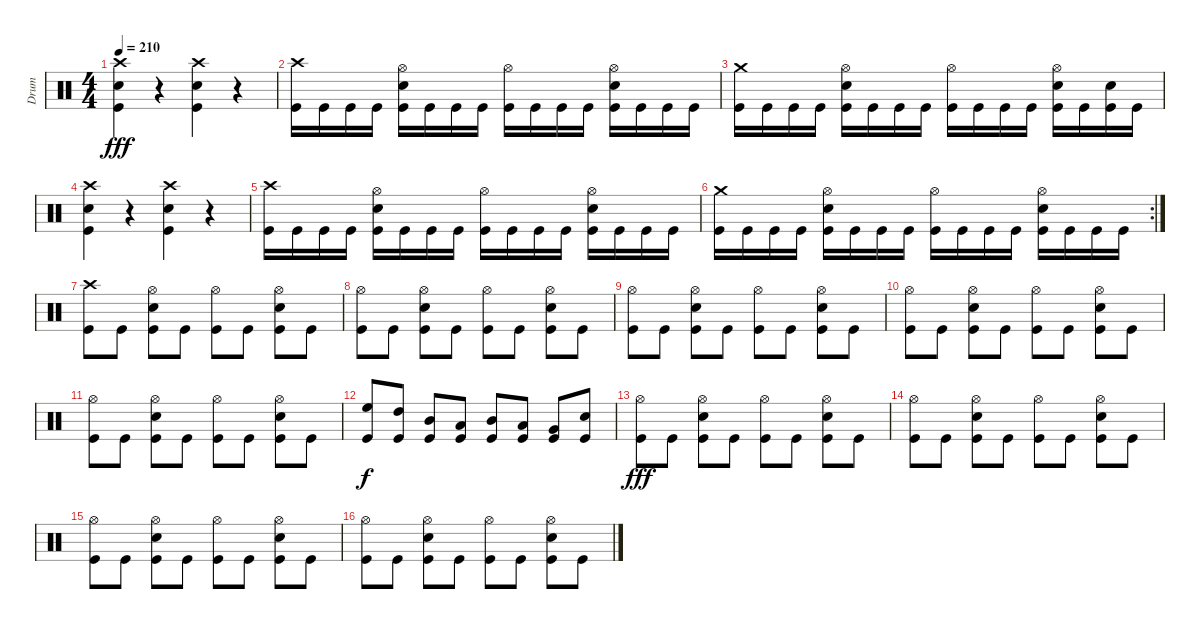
\track ("Drum" "Drum") {instrument percussion}
\staff {score}
\articulation defaults
\ts (4 4)
\tempo 210
\clef neutral
\ks c
("Crash high (hit)" "Snare (hit) 2" "Kick (hit)").4{dy fff} r.4 ("Crash high (hit)" "Snare (hit) 2" "Kick (hit)").4 r.4 |
("Crash high (hit)" "Kick (hit)").16 "Kick (hit)".16 "Kick (hit)".16 "Kick (hit)".16 ("Hi-Hat (open)" "Snare (hit) 2" "Kick (hit)").16 "Kick (hit)".16 "Kick (hit)".16 "Kick (hit)".16 ("Hi-Hat (open)" "Kick (hit)").16 "Kick (hit)".16 "Kick (hit)".16 "Kick (hit)".16 ("Hi-Hat (open)" "Snare (hit) 2" "Kick (hit)").16 "Kick (hit)".16 "Kick (hit)".16 "Kick (hit)".16 |
("Crash medium (hit)" "Kick (hit)").16 "Kick (hit)".16 "Kick (hit)".16 "Kick (hit)".16 ("Hi-Hat (open)" "Snare (hit) 2" "Kick (hit)").16 "Kick (hit)".16 "Kick (hit)".16 "Kick (hit)".16 ("Hi-Hat (open)" "Kick (hit)").16 "Kick (hit)".16 "Kick (hit)".16 "Kick (hit)".16 ("Hi-Hat (open)" "Snare (hit) 2" "Kick (hit)").16 "Kick (hit)".16 ("Snare (hit) 2" "Kick (hit)").16 "Kick (hit)".16 |
("Crash high (hit)" "Snare (hit) 2" "Kick (hit)").4 r.4 ("Crash high (hit)" "Snare (hit) 2" "Kick (hit)").4 r.4 |
("Crash high (hit)" "Kick (hit)").16 "Kick (hit)".16 "Kick (hit)".16 "Kick (hit)".16 ("Hi-Hat (open)" "Snare (hit) 2" "Kick (hit)").16 "Kick (hit)".16 "Kick (hit)".16 "Kick (hit)".16 ("Hi-Hat (open)" "Kick (hit)").16 "Kick (hit)".16 "Kick (hit)".16 "Kick (hit)".16 ("Hi-Hat (open)" "Snare (hit) 2" "Kick (hit)").16 "Kick (hit)".16 "Kick (hit)".16 "Kick (hit)".16 |
\rc 2
("Crash medium (hit)" "Kick (hit)").16 "Kick (hit)".16 "Kick (hit)".16 "Kick (hit)".16 ("Hi-Hat (open)" "Snare (hit) 2" "Kick (hit)").16 "Kick (hit)".16 "Kick (hit)".16 "Kick (hit)".16 ("Hi-Hat (open)" "Kick (hit)").16 "Kick (hit)".16 "Kick (hit)".16 "Kick (hit)".16 ("Hi-Hat (open)" "Snare (hit) 2" "Kick (hit)").16 "Kick (hit)".16 "Kick (hit)".16 "Kick (hit)".16 |
("Crash high (hit)" "Kick (hit)").8 "Kick (hit)".8 ("Hi-Hat (open)" "Snare (hit) 2" "Kick (hit)").8 "Kick (hit)".8 ("Hi-Hat (open)" "Kick (hit)").8 "Kick (hit)".8 ("Hi-Hat (open)" "Snare (hit) 2" "Kick (hit)").8 "Kick (hit)".8 |
("Hi-Hat (open)" "Kick (hit)").8 "Kick (hit)".8 ("Hi-Hat (open)" "Snare (hit) 2" "Kick (hit)").8 "Kick (hit)".8 ("Hi-Hat (open)" "Kick (hit)").8 "Kick (hit)".8 ("Hi-Hat (open)" "Snare (hit) 2" "Kick (hit)").8 "Kick (hit)".8 |
("Hi-Hat (open)" "Kick (hit)").8 "Kick (hit)".8 ("Hi-Hat (open)" "Snare (hit) 2" "Kick (hit)").8 "Kick (hit)".8 ("Hi-Hat (open)" "Kick (hit)").8 "Kick (hit)".8 ("Hi-Hat (open)" "Snare (hit) 2" "Kick (hit)").8 "Kick (hit)".8 |
("Hi-Hat (open)" "Kick (hit)").8 "Kick (hit)".8 ("Hi-Hat (open)" "Snare (hit) 2" "Kick (hit)").8 "Kick (hit)".8 ("Hi-Hat (open)" "Kick (hit)").8 "Kick (hit)".8 ("Hi-Hat (open)" "Snare (hit) 2" "Kick (hit)").8 "Kick (hit)".8 |
("Hi-Hat (open)" "Kick (hit)").8 "Kick (hit)".8 ("Hi-Hat (open)" "Snare (hit) 2" "Kick (hit)").8 "Kick (hit)".8 ("Hi-Hat (open)" "Kick (hit)").8 "Kick (hit)".8 ("Hi-Hat (open)" "Snare (hit) 2" "Kick (hit)").8 "Kick (hit)".8 |
("High Floor Tom (hit)" "Kick (hit)").8{dy f} ("High Tom (hit)" "Kick (hit)").8 ("Mid Tom (hit)" "Kick (hit)").8 ("Low Tom (hit)" "Kick (hit)").8 ("Mid Tom (hit)" "Kick (hit)").8 ("Low Tom (hit)" "Kick (hit)").8 ("Very Low Tom (hit)" "Kick (hit)").8 ("Snare (hit) 2" "Kick (hit)").8 |
("Hi-Hat (open)" "Kick (hit)").8{dy fff} "Kick (hit)".8 ("Hi-Hat (open)" "Snare (hit) 2" "Kick (hit)").8 "Kick (hit)".8 ("Hi-Hat (open)" "Kick (hit)").8 "Kick (hit)".8 ("Hi-Hat (open)" "Snare (hit) 2" "Kick (hit)").8 "Kick (hit)".8 |
("Hi-Hat (open)" "Kick (hit)").8 "Kick (hit)".8 ("Hi-Hat (open)" "Snare (hit) 2" "Kick (hit)").8 "Kick (hit)".8 ("Hi-Hat (open)" "Kick (hit)").8 "Kick (hit)".8 ("Hi-Hat (open)" "Snare (hit) 2" "Kick (hit)").8 "Kick (hit)".8 |
("Hi-Hat (open)" "Kick (hit)").8 "Kick (hit)".8 ("Hi-Hat (open)" "Snare (hit) 2" "Kick (hit)").8 "Kick (hit)".8 ("Hi-Hat (open)" "Kick (hit)").8 "Kick (hit)".8 ("Hi-Hat (open)" "Snare (hit) 2" "Kick (hit)").8 "Kick (hit)".8 |
("Hi-Hat (open)" "Kick (hit)").8 "Kick (hit)".8 ("Hi-Hat (open)" "Snare (hit) 2" "Kick (hit)").8 "Kick (hit)".8 ("Hi-Hat (open)" "Kick (hit)").8 "Kick (hit)".8 ("Hi-Hat (open)" "Snare (hit) 2" "Kick (hit)").8 "Kick (hit)".8
